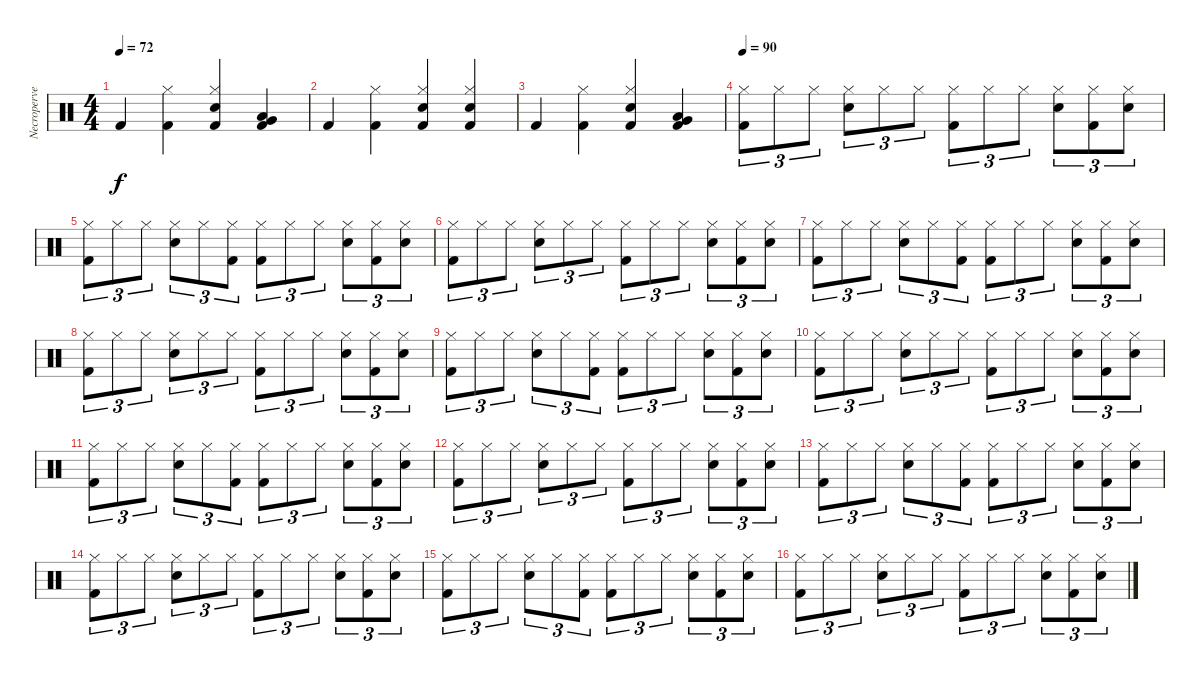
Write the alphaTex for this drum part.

\track ("Necroperversor" "Necroperve") {instrument percussion}
\staff {score}
\articulation defaults
\ts (4 4)
\tempo 72
\clef neutral
\ks c "Kick (hit) 2".4{dy f}
("Hi-Hat (closed)" "Kick (hit) 2").4 ("Hi-Hat (closed)" "Electric Snare (hit)" "Kick (hit) 2").4 ("Low Tom (hit)" "Very Low Tom (hit)" "Kick (hit) 2").4 |
"Kick (hit) 2".4 ("Hi-Hat (closed)" "Kick (hit) 2").4 ("Hi-Hat (closed)" "Electric Snare (hit)" "Kick (hit) 2").4 ("Hi-Hat (closed)" "Electric Snare (hit)" "Kick (hit) 2").4 |
"Kick (hit) 2".4 ("Hi-Hat (closed)" "Kick (hit) 2").4 ("Hi-Hat (closed)" "Electric Snare (hit)" "Kick (hit) 2").4 ("Low Tom (hit)" "Very Low Tom (hit)" "Kick (hit) 2").4 |
\tempo 90
("Hi-Hat (closed)" "Kick (hit) 2").8{tu (3 2)} "Hi-Hat (closed)".8{tu (3 2)} "Hi-Hat (closed)".8{tu (3 2)} ("Hi-Hat (closed)" "Electric Snare (hit)").8{tu (3 2)} "Hi-Hat (closed)".8{tu (3 2)} "Hi-Hat (closed)".8{tu (3 2)} ("Hi-Hat (closed)" "Kick (hit) 2").8{tu (3 2)} "Hi-Hat (closed)".8{tu (3 2)} "Hi-Hat (closed)".8{tu (3 2)} ("Hi-Hat (closed)" "Electric Snare (hit)").8{tu (3 2)} ("Hi-Hat (closed)" "Kick (hit) 2").8{tu (3 2)} ("Hi-Hat (closed)" "Electric Snare (hit)").8{tu (3 2)} |
("Hi-Hat (closed)" "Kick (hit) 2").8{tu (3 2)} "Hi-Hat (closed)".8{tu (3 2)} "Hi-Hat (closed)".8{tu (3 2)} ("Hi-Hat (closed)" "Electric Snare (hit)").8{tu (3 2)} "Hi-Hat (closed)".8{tu (3 2)} ("Hi-Hat (closed)" "Kick (hit) 2").8{tu (3 2)} ("Hi-Hat (closed)" "Kick (hit) 2").8{tu (3 2)} "Hi-Hat (closed)".8{tu (3 2)} "Hi-Hat (closed)".8{tu (3 2)} ("Hi-Hat (closed)" "Electric Snare (hit)").8{tu (3 2)} ("Hi-Hat (closed)" "Kick (hit) 2").8{tu (3 2)} ("Hi-Hat (closed)" "Electric Snare (hit)").8{tu (3 2)} |
("Hi-Hat (closed)" "Kick (hit) 2").8{tu (3 2)} "Hi-Hat (closed)".8{tu (3 2)} "Hi-Hat (closed)".8{tu (3 2)} ("Hi-Hat (closed)" "Electric Snare (hit)").8{tu (3 2)} "Hi-Hat (closed)".8{tu (3 2)} "Hi-Hat (closed)".8{tu (3 2)} ("Hi-Hat (closed)" "Kick (hit) 2").8{tu (3 2)} "Hi-Hat (closed)".8{tu (3 2)} "Hi-Hat (closed)".8{tu (3 2)} ("Hi-Hat (closed)" "Electric Snare (hit)").8{tu (3 2)} ("Hi-Hat (closed)" "Kick (hit) 2").8{tu (3 2)} ("Hi-Hat (closed)" "Electric Snare (hit)").8{tu (3 2)} |
("Hi-Hat (closed)" "Kick (hit) 2").8{tu (3 2)} "Hi-Hat (closed)".8{tu (3 2)} "Hi-Hat (closed)".8{tu (3 2)} ("Hi-Hat (closed)" "Electric Snare (hit)").8{tu (3 2)} "Hi-Hat (closed)".8{tu (3 2)} ("Hi-Hat (closed)" "Kick (hit) 2").8{tu (3 2)} ("Hi-Hat (closed)" "Kick (hit) 2").8{tu (3 2)} "Hi-Hat (closed)".8{tu (3 2)} "Hi-Hat (closed)".8{tu (3 2)} ("Hi-Hat (closed)" "Electric Snare (hit)").8{tu (3 2)} ("Hi-Hat (closed)" "Kick (hit) 2").8{tu (3 2)} ("Hi-Hat (closed)" "Electric Snare (hit)").8{tu (3 2)} |
("Hi-Hat (closed)" "Kick (hit) 2").8{tu (3 2)} "Hi-Hat (closed)".8{tu (3 2)} "Hi-Hat (closed)".8{tu (3 2)} ("Hi-Hat (closed)" "Electric Snare (hit)").8{tu (3 2)} "Hi-Hat (closed)".8{tu (3 2)} "Hi-Hat (closed)".8{tu (3 2)} ("Hi-Hat (closed)" "Kick (hit) 2").8{tu (3 2)} "Hi-Hat (closed)".8{tu (3 2)} "Hi-Hat (closed)".8{tu (3 2)} ("Hi-Hat (closed)" "Electric Snare (hit)").8{tu (3 2)} ("Hi-Hat (closed)" "Kick (hit) 2").8{tu (3 2)} ("Hi-Hat (closed)" "Electric Snare (hit)").8{tu (3 2)} |
("Hi-Hat (closed)" "Kick (hit) 2").8{tu (3 2)} "Hi-Hat (closed)".8{tu (3 2)} "Hi-Hat (closed)".8{tu (3 2)} ("Hi-Hat (closed)" "Electric Snare (hit)").8{tu (3 2)} "Hi-Hat (closed)".8{tu (3 2)} ("Hi-Hat (closed)" "Kick (hit) 2").8{tu (3 2)} ("Hi-Hat (closed)" "Kick (hit) 2").8{tu (3 2)} "Hi-Hat (closed)".8{tu (3 2)} "Hi-Hat (closed)".8{tu (3 2)} ("Hi-Hat (closed)" "Electric Snare (hit)").8{tu (3 2)} ("Hi-Hat (closed)" "Kick (hit) 2").8{tu (3 2)} ("Hi-Hat (closed)" "Electric Snare (hit)").8{tu (3 2)} |
("Hi-Hat (closed)" "Kick (hit) 2").8{tu (3 2)} "Hi-Hat (closed)".8{tu (3 2)} "Hi-Hat (closed)".8{tu (3 2)} ("Hi-Hat (closed)" "Electric Snare (hit)").8{tu (3 2)} "Hi-Hat (closed)".8{tu (3 2)} "Hi-Hat (closed)".8{tu (3 2)} ("Hi-Hat (closed)" "Kick (hit) 2").8{tu (3 2)} "Hi-Hat (closed)".8{tu (3 2)} "Hi-Hat (closed)".8{tu (3 2)} ("Hi-Hat (closed)" "Electric Snare (hit)").8{tu (3 2)} ("Hi-Hat (closed)" "Kick (hit) 2").8{tu (3 2)} ("Hi-Hat (closed)" "Electric Snare (hit)").8{tu (3 2)} |
("Hi-Hat (closed)" "Kick (hit) 2").8{tu (3 2)} "Hi-Hat (closed)".8{tu (3 2)} "Hi-Hat (closed)".8{tu (3 2)} ("Hi-Hat (closed)" "Electric Snare (hit)").8{tu (3 2)} "Hi-Hat (closed)".8{tu (3 2)} ("Hi-Hat (closed)" "Kick (hit) 2").8{tu (3 2)} ("Hi-Hat (closed)" "Kick (hit) 2").8{tu (3 2)} "Hi-Hat (closed)".8{tu (3 2)} "Hi-Hat (closed)".8{tu (3 2)} ("Hi-Hat (closed)" "Electric Snare (hit)").8{tu (3 2)} ("Hi-Hat (closed)" "Kick (hit) 2").8{tu (3 2)} ("Hi-Hat (closed)" "Electric Snare (hit)").8{tu (3 2)} |
("Hi-Hat (closed)" "Kick (hit) 2").8{tu (3 2)} "Hi-Hat (closed)".8{tu (3 2)} "Hi-Hat (closed)".8{tu (3 2)} ("Hi-Hat (closed)" "Electric Snare (hit)").8{tu (3 2)} "Hi-Hat (closed)".8{tu (3 2)} "Hi-Hat (closed)".8{tu (3 2)} ("Hi-Hat (closed)" "Kick (hit) 2").8{tu (3 2)} "Hi-Hat (closed)".8{tu (3 2)} "Hi-Hat (closed)".8{tu (3 2)} ("Hi-Hat (closed)" "Electric Snare (hit)").8{tu (3 2)} ("Hi-Hat (closed)" "Kick (hit) 2").8{tu (3 2)} ("Hi-Hat (closed)" "Electric Snare (hit)").8{tu (3 2)} |
("Hi-Hat (closed)" "Kick (hit) 2").8{tu (3 2)} "Hi-Hat (closed)".8{tu (3 2)} "Hi-Hat (closed)".8{tu (3 2)} ("Hi-Hat (closed)" "Electric Snare (hit)").8{tu (3 2)} "Hi-Hat (closed)".8{tu (3 2)} ("Hi-Hat (closed)" "Kick (hit) 2").8{tu (3 2)} ("Hi-Hat (closed)" "Kick (hit) 2").8{tu (3 2)} "Hi-Hat (closed)".8{tu (3 2)} "Hi-Hat (closed)".8{tu (3 2)} ("Hi-Hat (closed)" "Electric Snare (hit)").8{tu (3 2)} ("Hi-Hat (closed)" "Kick (hit) 2").8{tu (3 2)} ("Hi-Hat (closed)" "Electric Snare (hit)").8{tu (3 2)} |
("Hi-Hat (closed)" "Kick (hit) 2").8{tu (3 2)} "Hi-Hat (closed)".8{tu (3 2)} "Hi-Hat (closed)".8{tu (3 2)} ("Hi-Hat (closed)" "Electric Snare (hit)").8{tu (3 2)} "Hi-Hat (closed)".8{tu (3 2)} "Hi-Hat (closed)".8{tu (3 2)} ("Hi-Hat (closed)" "Kick (hit) 2").8{tu (3 2)} "Hi-Hat (closed)".8{tu (3 2)} "Hi-Hat (closed)".8{tu (3 2)} ("Hi-Hat (closed)" "Electric Snare (hit)").8{tu (3 2)} ("Hi-Hat (closed)" "Kick (hit) 2").8{tu (3 2)} ("Hi-Hat (closed)" "Electric Snare (hit)").8{tu (3 2)} |
("Hi-Hat (closed)" "Kick (hit) 2").8{tu (3 2)} "Hi-Hat (closed)".8{tu (3 2)} "Hi-Hat (closed)".8{tu (3 2)} ("Hi-Hat (closed)" "Electric Snare (hit)").8{tu (3 2)} "Hi-Hat (closed)".8{tu (3 2)} ("Hi-Hat (closed)" "Kick (hit) 2").8{tu (3 2)} ("Hi-Hat (closed)" "Kick (hit) 2").8{tu (3 2)} "Hi-Hat (closed)".8{tu (3 2)} "Hi-Hat (closed)".8{tu (3 2)} ("Hi-Hat (closed)" "Electric Snare (hit)").8{tu (3 2)} ("Hi-Hat (closed)" "Kick (hit) 2").8{tu (3 2)} ("Hi-Hat (closed)" "Electric Snare (hit)").8{tu (3 2)} |
("Hi-Hat (closed)" "Kick (hit) 2").8{tu (3 2)} "Hi-Hat (closed)".8{tu (3 2)} "Hi-Hat (closed)".8{tu (3 2)} ("Hi-Hat (closed)" "Electric Snare (hit)").8{tu (3 2)} "Hi-Hat (closed)".8{tu (3 2)} "Hi-Hat (closed)".8{tu (3 2)} ("Hi-Hat (closed)" "Kick (hit) 2").8{tu (3 2)} "Hi-Hat (closed)".8{tu (3 2)} "Hi-Hat (closed)".8{tu (3 2)} ("Hi-Hat (closed)" "Electric Snare (hit)").8{tu (3 2)} ("Hi-Hat (closed)" "Kick (hit) 2").8{tu (3 2)} ("Hi-Hat (closed)" "Electric Snare (hit)").8{tu (3 2)}
